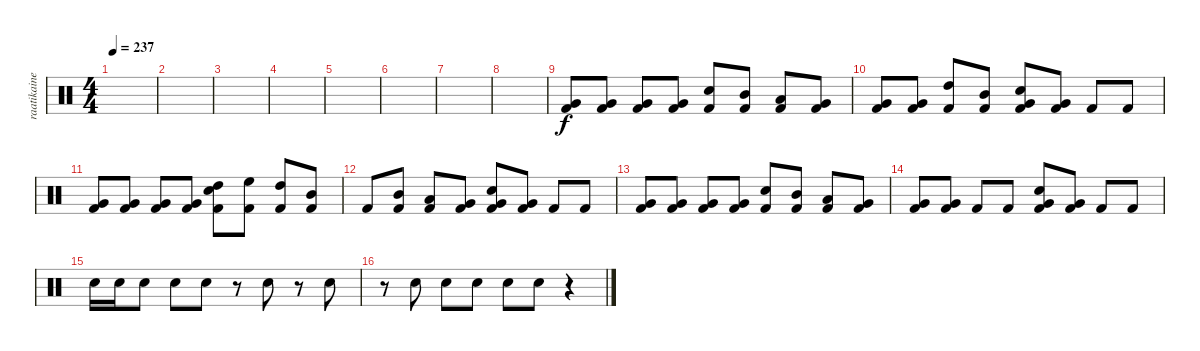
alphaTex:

\track ("raatikainen" "raatikaine") {instrument percussion}
\staff {score}
\articulation defaults
\ts (4 4)
\tempo 237
\clef neutral
\ks c
|
|
|
|
|
|
|
|
("Very Low Tom (hit)" "Kick (hit) 2").8 ("Very Low Tom (hit)" "Kick (hit) 2").8 ("Very Low Tom (hit)" "Kick (hit) 2").8 ("Very Low Tom (hit)" "Kick (hit) 2").8 ("Snare (hit) 2" "Kick (hit) 2").8 ("Mid Tom (hit)" "Kick (hit) 2").8 ("Low Tom (hit)" "Kick (hit) 2").8 ("Very Low Tom (hit)" "Kick (hit) 2").8 |
("Very Low Tom (hit)" "Kick (hit) 2").8{txt ""} ("Very Low Tom (hit)" "Kick (hit) 2").8 ("High Tom (hit)" "Kick (hit) 2").8 ("Mid Tom (hit)" "Kick (hit) 2").8 ("Very Low Tom (hit)" "Snare (hit) 2" "Kick (hit) 2").8 ("Very Low Tom (hit)" "Kick (hit) 2").8 "Kick (hit) 2".8 "Kick (hit) 2".8 |
("Very Low Tom (hit)" "Kick (hit) 2").8 ("Very Low Tom (hit)" "Kick (hit) 2").8 ("Very Low Tom (hit)" "Kick (hit) 2").8 ("Very Low Tom (hit)" "Kick (hit) 2").8 ("High Tom (hit)" "Snare (hit) 2" "Kick (hit) 2").8 ("High Floor Tom (hit)" "Kick (hit) 2").8 ("High Tom (hit)" "Kick (hit) 2").8 ("Mid Tom (hit)" "Kick (hit) 2").8 |
"Kick (hit) 2".8 ("Mid Tom (hit)" "Kick (hit) 2").8 ("Low Tom (hit)" "Kick (hit) 2").8 ("Very Low Tom (hit)" "Kick (hit) 2").8 ("Snare (hit) 2" "Very Low Tom (hit)" "Kick (hit) 2").8 ("Very Low Tom (hit)" "Kick (hit) 2").8 "Kick (hit) 2".8 "Kick (hit) 2".8 |
("Very Low Tom (hit)" "Kick (hit) 2").8 ("Very Low Tom (hit)" "Kick (hit) 2").8 ("Very Low Tom (hit)" "Kick (hit) 2").8 ("Very Low Tom (hit)" "Kick (hit) 2").8 ("Snare (hit) 2" "Kick (hit) 2").8 ("Mid Tom (hit)" "Kick (hit) 2").8 ("Low Tom (hit)" "Kick (hit) 2").8 ("Very Low Tom (hit)" "Kick (hit) 2").8 |
("Very Low Tom (hit)" "Kick (hit) 2").8 ("Very Low Tom (hit)" "Kick (hit) 2").8 "Kick (hit) 2".8 "Kick (hit) 2".8 ("Snare (hit) 2" "Very Low Tom (hit)" "Kick (hit) 2").8 ("Very Low Tom (hit)" "Kick (hit) 2").8 "Kick (hit) 2".8 "Kick (hit) 2".8 |
"Snare (hit) 2".16 "Snare (hit) 2".16 "Snare (hit) 2".8 "Snare (hit) 2".8 "Snare (hit) 2".8 r.8 "Snare (hit) 2".8 r.8 "Snare (hit) 2".8 |
r.8 "Snare (hit) 2".8 "Snare (hit) 2".8 "Snare (hit) 2".8 "Snare (hit) 2".8 "Snare (hit) 2".8 r.4
